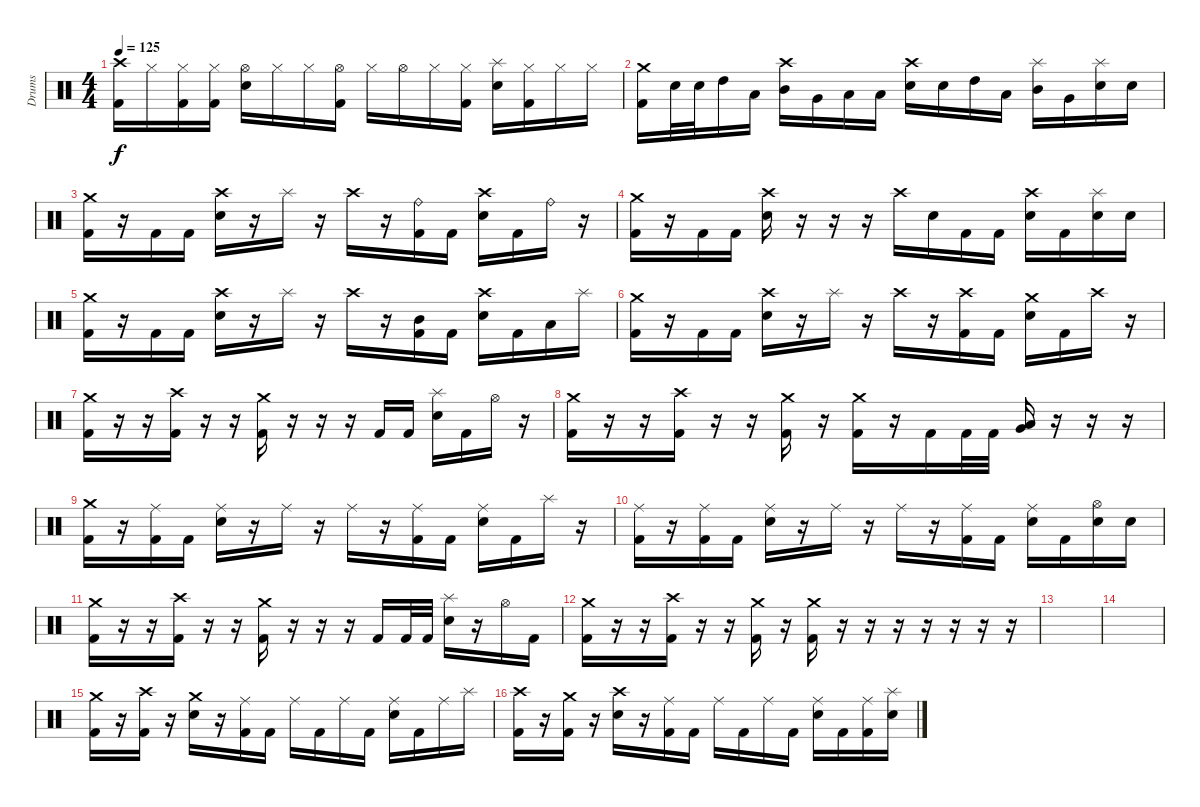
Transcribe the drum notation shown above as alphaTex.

\track ("Drums" "Drums") {instrument percussion}
\staff {score}
\articulation defaults
\ts (4 4)
\tempo 125
\clef neutral
\ks c
("Crash high (hit)" "Kick (hit) 2").16{dy f} "Hi-Hat (closed)".16 ("Hi-Hat (closed)" "Kick (hit) 2").16 ("Hi-Hat (closed)" "Kick (hit) 2").16 ("Hi-Hat (open)" "Electric Snare (hit)").16 "Hi-Hat (closed)".16 "Hi-Hat (closed)".16 ("Hi-Hat (open)" "Kick (hit) 2").16 "Hi-Hat (closed)".16 "Hi-Hat (open)".16 "Hi-Hat (closed)".16 ("Hi-Hat (closed)" "Kick (hit) 2").16 ("Splash (hit)" "Electric Snare (hit)").16 ("Hi-Hat (closed)" "Kick (hit) 2").16 "Hi-Hat (closed)".16 "Hi-Hat (closed)".16 |
("Crash medium (hit)" "Kick (hit) 2").16 "Electric Snare (hit)".32 "Electric Snare (hit)".32 "High Tom (hit)".16 "Low Tom (hit)".16 ("Crash high (hit)" "Mid Tom (hit)").16 "Very Low Tom (hit)".16 "Low Floor Tom (hit)".16 "Low Tom (hit)".16 ("Crash high (hit)" "Electric Snare (hit)").16 "Electric Snare (hit)".16 "High Tom (hit)".16 "Low Tom (hit)".16 ("Splash (hit)" "Mid Tom (hit)").16 "Very Low Tom (hit)".16 ("Splash (hit)" "Electric Snare (hit)").16 "Electric Snare (hit)".16 |
("Crash medium (hit)" "Kick (hit) 2").16 r.16 "Kick (hit) 2".16 "Kick (hit) 2".16 ("Crash high (hit)" "Electric Snare (hit)").16 r.16 "Splash (hit)".16 r.16 "Crash high (hit)".16 r.16 ("Ride (bell)" "Kick (hit) 2").16 "Kick (hit) 2".16 ("Crash high (hit)" "Electric Snare (hit)").16 "Kick (hit) 2".16 "Ride (bell)".16 r.16 |
("Crash medium (hit)" "Kick (hit) 2").16 r.16 "Kick (hit) 2".16 "Kick (hit) 2".16 ("Crash high (hit)" "Electric Snare (hit)").16 r.16 r.16 r.16 "Crash high (hit)".16 "Electric Snare (hit)".16 "Kick (hit) 2".16 "Kick (hit) 2".16 ("Crash high (hit)" "Electric Snare (hit)").16 "Kick (hit) 2".16 ("Splash (hit)" "Electric Snare (hit)").16 "Electric Snare (hit)".16 |
("Crash medium (hit)" "Kick (hit) 2").16 r.16 "Kick (hit) 2".16 "Kick (hit) 2".16 ("Crash high (hit)" "Electric Snare (hit)").16 r.16 "Splash (hit)".16 r.16 "Crash high (hit)".16 r.16 ("Mid Tom (hit)" "Kick (hit) 2").16 "Kick (hit) 2".16 ("Crash high (hit)" "Electric Snare (hit)").16 "Kick (hit) 2".16 "Low Tom (hit)".16 "Splash (hit)".16 |
("Crash medium (hit)" "Kick (hit) 2").16 r.16 "Kick (hit) 2".16 "Kick (hit) 2".16 ("Crash high (hit)" "Electric Snare (hit)").16 r.16 "Splash (hit)".16 r.16 "Crash high (hit)".16 r.16 ("Crash high (hit)" "Kick (hit) 2").16 "Kick (hit) 2".16 ("Crash medium (hit)" "Electric Snare (hit)").16 "Kick (hit) 2".16 "Crash high (hit)".16 r.16 |
("Crash medium (hit)" "Kick (hit) 2").16 r.16 r.16 ("Crash high (hit)" "Kick (hit) 2").16 r.16 r.16 ("Crash medium (hit)" "Kick (hit) 2").16 r.16 r.16 r.16 "Kick (hit) 2".16 "Kick (hit) 2".16 ("Splash (hit)" "Electric Snare (hit)").16 "Kick (hit) 2".16 "Hi-Hat (open)".16 r.16 |
("Crash medium (hit)" "Kick (hit) 2").16 r.16 r.16 ("Crash high (hit)" "Kick (hit) 2").16 r.16 r.16 ("Crash medium (hit)" "Kick (hit) 2").16 r.16 ("Crash medium (hit)" "Kick (hit) 2").16 r.16 "Kick (hit) 2".16 "Kick (hit) 2".32 "Kick (hit) 2".32 ("Low Tom (hit)" "Very Low Tom (hit)").16 r.16 r.16 r.16 |
("Crash medium (hit)" "Kick (hit) 2").16 r.16 ("Ride (middle)" "Kick (hit) 2").16 "Kick (hit) 2".16 ("Ride (middle)" "Electric Snare (hit)").16 r.16 "Ride (middle)".16 r.16 "Ride (middle)".16 r.16 ("Ride (middle)" "Kick (hit) 2").16 "Kick (hit) 2".16 ("Ride (middle)" "Electric Snare (hit)").16 "Kick (hit) 2".16 "Splash (hit)".16 r.16 |
("Ride (middle)" "Kick (hit) 2").16 r.16 ("Ride (middle)" "Kick (hit) 2").16 "Kick (hit) 2".16 ("Ride (middle)" "Electric Snare (hit)").16 r.16 "Ride (middle)".16 r.16 "Ride (middle)".16 r.16 ("Ride (middle)" "Kick (hit) 2").16 "Kick (hit) 2".16 ("Ride (middle)" "Electric Snare (hit)").16 "Kick (hit) 2".16 ("Hi-Hat (open)" "Electric Snare (hit)").16 "Electric Snare (hit)".16 |
("Crash medium (hit)" "Kick (hit) 2").16 r.16 r.16 ("Crash high (hit)" "Kick (hit) 2").16 r.16 r.16 ("Crash medium (hit)" "Kick (hit) 2").16 r.16 r.16 r.16 "Kick (hit) 2".16 "Kick (hit) 2".32 "Kick (hit) 2".32 ("Splash (hit)" "Electric Snare (hit)").16 r.16 "Hi-Hat (open)".16 "Kick (hit) 2".16 |
("Crash medium (hit)" "Kick (hit) 2").16 r.16 r.16 ("Crash high (hit)" "Kick (hit) 2").16 r.16 r.16 ("Crash medium (hit)" "Kick (hit) 2").16 r.16 ("Crash medium (hit)" "Kick (hit) 2").16 r.16 r.16 r.16 r.16 r.16 r.16 r.16 |
|
|
("Crash medium (hit)" "Kick (hit) 2").16 r.16 ("Crash high (hit)" "Kick (hit) 2").16 r.16 ("Crash medium (hit)" "Electric Snare (hit)").16 r.16 ("Ride (middle)" "Kick (hit) 2").16 "Kick (hit) 2".16 "Ride (middle)".16 "Kick (hit) 2".16 "Ride (middle)".16 "Kick (hit) 2".16 ("Ride (middle)" "Electric Snare (hit)").16 "Kick (hit) 2".16 "Ride (middle)".16 "Splash (hit)".16 |
("Crash high (hit)" "Kick (hit) 2").16 r.16 ("Crash medium (hit)" "Kick (hit) 2").16 r.16 ("Crash high (hit)" "Electric Snare (hit)").16 r.16 ("Ride (middle)" "Kick (hit) 2").16 "Kick (hit) 2".16 "Ride (middle)".16 "Kick (hit) 2".16 "Ride (middle)".16 "Kick (hit) 2".16 ("Ride (middle)" "Electric Snare (hit)").16 "Kick (hit) 2".16 ("Ride (middle)" "Kick (hit) 2").16 ("Splash (hit)" "Electric Snare (hit)").16
